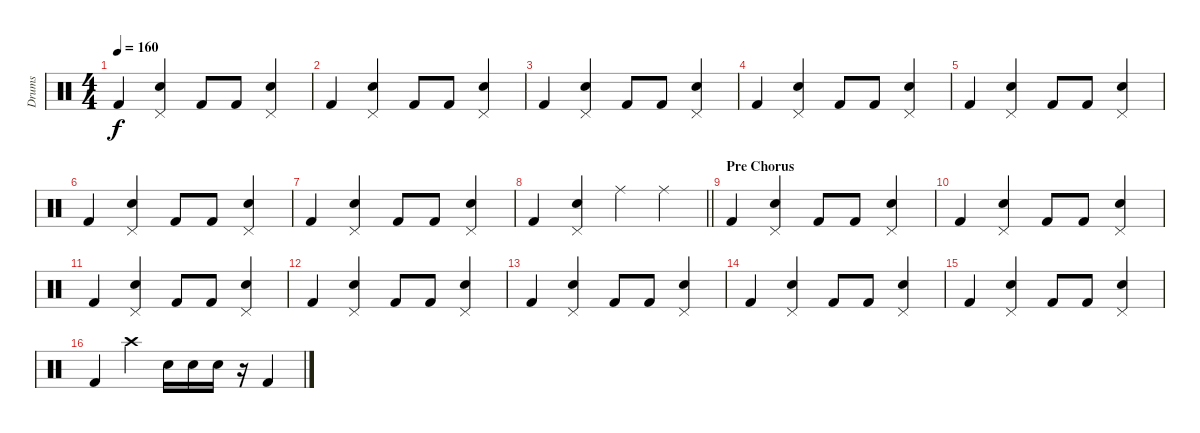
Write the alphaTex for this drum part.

\track ("Drums" "Drums") {instrument percussion}
\staff {score}
\articulation defaults
\ts (4 4)
\tempo 160
\clef neutral
\ks c "Kick (hit) 2".4{dy f}
("Pedal Hi-Hat (hit)" "Electric Snare (hit)").4 "Kick (hit) 2".8 "Kick (hit) 2".8 ("Pedal Hi-Hat (hit)" "Electric Snare (hit)").4 |
"Kick (hit) 2".4 ("Pedal Hi-Hat (hit)" "Electric Snare (hit)").4 "Kick (hit) 2".8 "Kick (hit) 2".8 ("Pedal Hi-Hat (hit)" "Electric Snare (hit)").4 |
"Kick (hit) 2".4 ("Pedal Hi-Hat (hit)" "Electric Snare (hit)").4 "Kick (hit) 2".8 "Kick (hit) 2".8 ("Pedal Hi-Hat (hit)" "Electric Snare (hit)").4 |
"Kick (hit) 2".4 ("Pedal Hi-Hat (hit)" "Electric Snare (hit)").4 "Kick (hit) 2".8 "Kick (hit) 2".8 ("Pedal Hi-Hat (hit)" "Electric Snare (hit)").4 |
"Kick (hit) 2".4 ("Pedal Hi-Hat (hit)" "Electric Snare (hit)").4 "Kick (hit) 2".8 "Kick (hit) 2".8 ("Pedal Hi-Hat (hit)" "Electric Snare (hit)").4 |
"Kick (hit) 2".4 ("Pedal Hi-Hat (hit)" "Electric Snare (hit)").4 "Kick (hit) 2".8 "Kick (hit) 2".8 ("Pedal Hi-Hat (hit)" "Electric Snare (hit)").4 |
"Kick (hit) 2".4 ("Pedal Hi-Hat (hit)" "Electric Snare (hit)").4 "Kick (hit) 2".8 "Kick (hit) 2".8 ("Pedal Hi-Hat (hit)" "Electric Snare (hit)").4 |
\barLineRight lightlight "Kick (hit) 2".4
("Pedal Hi-Hat (hit)" "Electric Snare (hit)").4 "Ride (middle)".4 "Ride (middle)".4 |
\section ("" "Pre Chorus")
"Kick (hit) 2".4 ("Pedal Hi-Hat (hit)" "Electric Snare (hit)").4 "Kick (hit) 2".8 "Kick (hit) 2".8 ("Pedal Hi-Hat (hit)" "Electric Snare (hit)").4 |
"Kick (hit) 2".4 ("Pedal Hi-Hat (hit)" "Electric Snare (hit)").4 "Kick (hit) 2".8 "Kick (hit) 2".8 ("Pedal Hi-Hat (hit)" "Electric Snare (hit)").4 |
"Kick (hit) 2".4 ("Pedal Hi-Hat (hit)" "Electric Snare (hit)").4 "Kick (hit) 2".8 "Kick (hit) 2".8 ("Pedal Hi-Hat (hit)" "Electric Snare (hit)").4 |
"Kick (hit) 2".4 ("Pedal Hi-Hat (hit)" "Electric Snare (hit)").4 "Kick (hit) 2".8 "Kick (hit) 2".8 ("Pedal Hi-Hat (hit)" "Electric Snare (hit)").4 |
"Kick (hit) 2".4 ("Pedal Hi-Hat (hit)" "Electric Snare (hit)").4 "Kick (hit) 2".8 "Kick (hit) 2".8 ("Pedal Hi-Hat (hit)" "Electric Snare (hit)").4 |
"Kick (hit) 2".4 ("Pedal Hi-Hat (hit)" "Electric Snare (hit)").4 "Kick (hit) 2".8 "Kick (hit) 2".8 ("Pedal Hi-Hat (hit)" "Electric Snare (hit)").4 |
"Kick (hit) 2".4 ("Pedal Hi-Hat (hit)" "Electric Snare (hit)").4 "Kick (hit) 2".8 "Kick (hit) 2".8 ("Pedal Hi-Hat (hit)" "Electric Snare (hit)").4 |
"Kick (hit) 2".4 "Crash high (hit)".4 "Snare (hit) 2".16 "Snare (hit) 2".16 "Snare (hit) 2".16 r.16 "Kick (hit) 2".4
